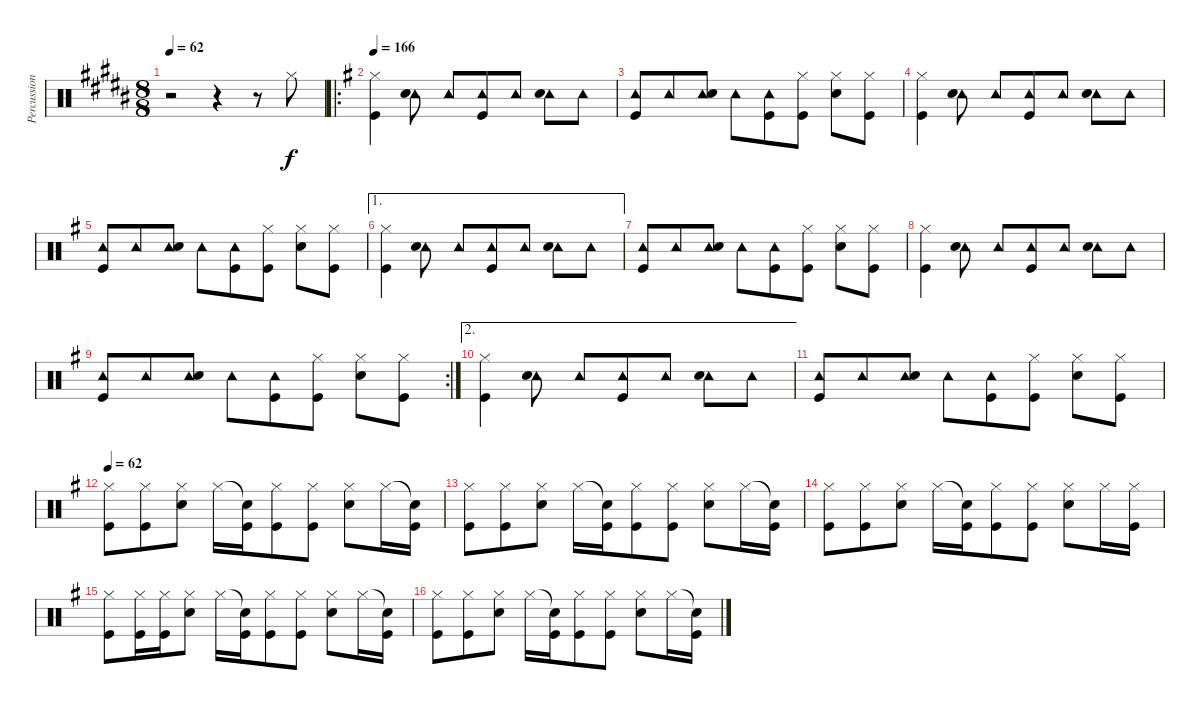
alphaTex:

\track ("Percussions" "Percussion") {instrument percussion}
\staff {score}
\articulation defaults
\ts (8 8)
\tempo 62
\clef neutral
\ks b
r.2{dy f} r.4 r.8 "Hi-Hat (closed)".8 |
\ro
\tempo 166
\ks g
("Hi-Hat (closed)" "Kick (hit)").4 ("Tambourine (hit)" "Snare (hit) 2").8 "Tambourine (hit)".8 ("Tambourine (hit)" "Kick (hit)").8 "Tambourine (hit)".8 ("Tambourine (hit)" "Snare (hit) 2").8 "Tambourine (hit)".8 |
("Tambourine (hit)" "Kick (hit)").8 "Tambourine (hit)".8 ("Tambourine (hit)" "Snare (hit) 2").8 "Tambourine (hit)".8 ("Tambourine (hit)" "Kick (hit)").8 ("Hi-Hat (closed)" "Kick (hit)").8 ("Hi-Hat (closed)" "Snare (hit) 2").8 ("Hi-Hat (closed)" "Kick (hit)").8 |
("Hi-Hat (closed)" "Kick (hit)").4 ("Tambourine (hit)" "Snare (hit) 2").8 "Tambourine (hit)".8 ("Tambourine (hit)" "Kick (hit)").8 "Tambourine (hit)".8 ("Tambourine (hit)" "Snare (hit) 2").8 "Tambourine (hit)".8 |
("Tambourine (hit)" "Kick (hit)").8 "Tambourine (hit)".8 ("Tambourine (hit)" "Snare (hit) 2").8 "Tambourine (hit)".8 ("Tambourine (hit)" "Kick (hit)").8 ("Hi-Hat (closed)" "Kick (hit)").8 ("Hi-Hat (closed)" "Snare (hit) 2").8 ("Hi-Hat (closed)" "Kick (hit)").8 |
\ae 1
("Hi-Hat (closed)" "Kick (hit)").4 ("Tambourine (hit)" "Snare (hit) 2").8 "Tambourine (hit)".8 ("Tambourine (hit)" "Kick (hit)").8 "Tambourine (hit)".8 ("Tambourine (hit)" "Snare (hit) 2").8 "Tambourine (hit)".8 |
("Tambourine (hit)" "Kick (hit)").8 "Tambourine (hit)".8 ("Tambourine (hit)" "Snare (hit) 2").8 "Tambourine (hit)".8 ("Tambourine (hit)" "Kick (hit)").8 ("Hi-Hat (closed)" "Kick (hit)").8 ("Hi-Hat (closed)" "Snare (hit) 2").8 ("Hi-Hat (closed)" "Kick (hit)").8 |
("Hi-Hat (closed)" "Kick (hit)").4 ("Tambourine (hit)" "Snare (hit) 2").8 "Tambourine (hit)".8 ("Tambourine (hit)" "Kick (hit)").8 "Tambourine (hit)".8 ("Tambourine (hit)" "Snare (hit) 2").8 "Tambourine (hit)".8 |
\rc 2
("Tambourine (hit)" "Kick (hit)").8 "Tambourine (hit)".8 ("Tambourine (hit)" "Snare (hit) 2").8 "Tambourine (hit)".8 ("Tambourine (hit)" "Kick (hit)").8 ("Hi-Hat (closed)" "Kick (hit)").8 ("Hi-Hat (closed)" "Snare (hit) 2").8 ("Hi-Hat (closed)" "Kick (hit)").8 |
\ae 2
("Hi-Hat (closed)" "Kick (hit)").4 ("Tambourine (hit)" "Snare (hit) 2").8 "Tambourine (hit)".8 ("Tambourine (hit)" "Kick (hit)").8 "Tambourine (hit)".8 ("Tambourine (hit)" "Snare (hit) 2").8 "Tambourine (hit)".8 |
("Tambourine (hit)" "Kick (hit)").8 "Tambourine (hit)".8 ("Tambourine (hit)" "Snare (hit) 2").8 "Tambourine (hit)".8 ("Tambourine (hit)" "Kick (hit)").8 ("Hi-Hat (closed)" "Kick (hit)").8 ("Hi-Hat (closed)" "Snare (hit) 2").8 ("Hi-Hat (closed)" "Kick (hit)").8 |
\tempo 62
("Hi-Hat (closed)" "Kick (hit)").8 ("Hi-Hat (closed)" "Kick (hit)").8 ("Hi-Hat (closed)" "Snare (hit) 2").8 "Hi-Hat (closed)".16 ("Snare (hit)"{t} "Kick (hit)").16 ("Hi-Hat (closed)" "Kick (hit)").8 ("Hi-Hat (closed)" "Kick (hit)").8 ("Hi-Hat (closed)" "Snare (hit) 2").8 "Hi-Hat (closed)".16 ("Snare (hit)"{t} "Kick (hit)").16 |
("Hi-Hat (closed)" "Kick (hit)").8 ("Hi-Hat (closed)" "Kick (hit)").8 ("Hi-Hat (closed)" "Snare (hit) 2").8 "Hi-Hat (closed)".16 ("Snare (hit)"{t} "Kick (hit)").16 ("Hi-Hat (closed)" "Kick (hit)").8 ("Hi-Hat (closed)" "Kick (hit)").8 ("Hi-Hat (closed)" "Snare (hit) 2").8 "Hi-Hat (closed)".16 ("Snare (hit)"{t} "Kick (hit)").16 |
("Hi-Hat (closed)" "Kick (hit)").8 ("Hi-Hat (closed)" "Kick (hit)").8 ("Hi-Hat (closed)" "Snare (hit) 2").8 "Hi-Hat (closed)".16 ("Snare (hit)"{t} "Kick (hit)").16 ("Hi-Hat (closed)" "Kick (hit)").8 ("Hi-Hat (closed)" "Kick (hit)").8 ("Hi-Hat (closed)" "Snare (hit) 2").8 "Hi-Hat (closed)".16 ("Hi-Hat (closed)" "Kick (hit)").16 |
("Hi-Hat (closed)" "Kick (hit)").8 ("Hi-Hat (closed)" "Kick (hit)").16 ("Hi-Hat (closed)" "Kick (hit)").16 ("Hi-Hat (closed)" "Snare (hit) 2").8 "Hi-Hat (closed)".16 ("Snare (hit)"{t} "Kick (hit)").16 ("Hi-Hat (closed)" "Kick (hit)").8 ("Hi-Hat (closed)" "Kick (hit)").8 ("Hi-Hat (closed)" "Snare (hit) 2").8 "Hi-Hat (closed)".16 ("Snare (hit)"{t} "Kick (hit)").16 |
("Hi-Hat (closed)" "Kick (hit)").8 ("Hi-Hat (closed)" "Kick (hit)").8 ("Hi-Hat (closed)" "Snare (hit) 2").8 "Hi-Hat (closed)".16 ("Snare (hit)"{t} "Kick (hit)").16 ("Hi-Hat (closed)" "Kick (hit)").8 ("Hi-Hat (closed)" "Kick (hit)").8 ("Hi-Hat (closed)" "Snare (hit) 2").8 "Hi-Hat (closed)".16 ("Snare (hit)"{t} "Kick (hit)").16
